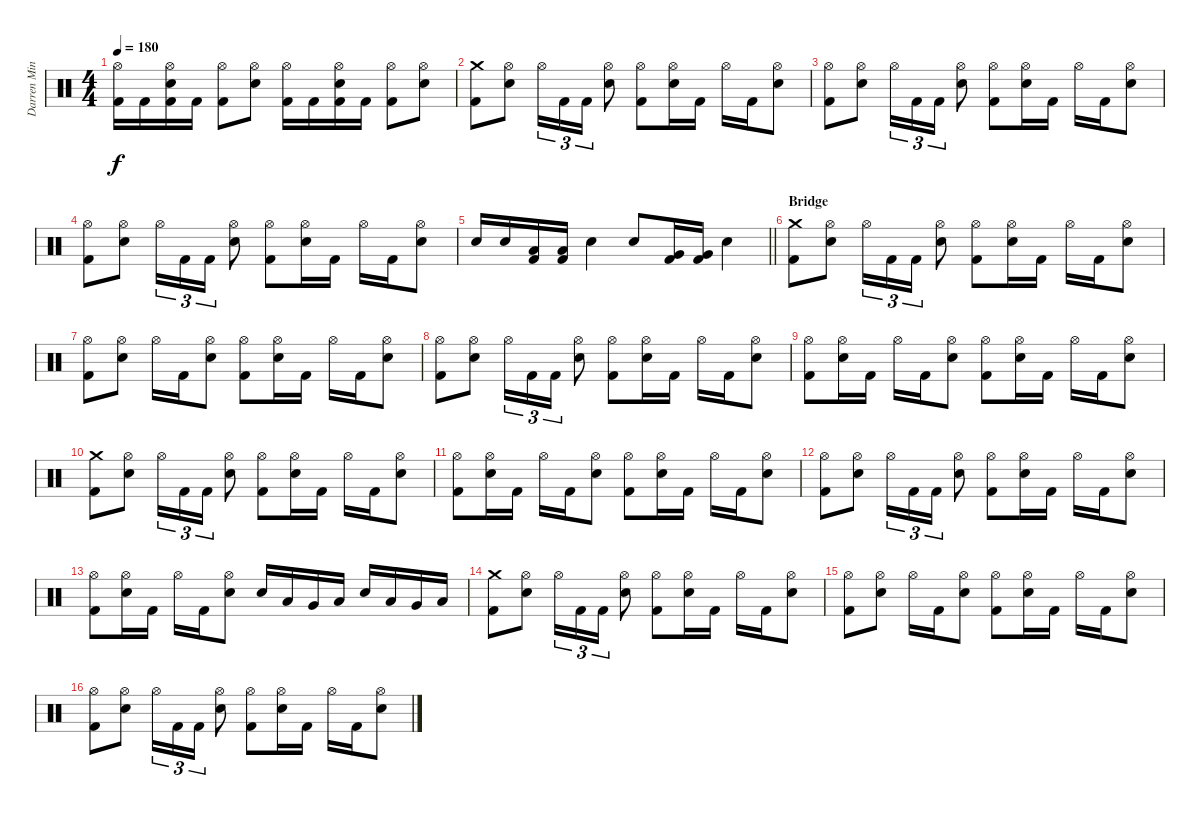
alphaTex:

\track ("Darren Minter" "Darren Min") {instrument percussion}
\staff {score}
\articulation defaults
\ts (4 4)
\tempo 180
\clef neutral
\ks c
("Hi-Hat (open)" "Kick (hit) 2").16{dy f} "Kick (hit) 2".16 ("Hi-Hat (open)" "Electric Snare (hit)" "Kick (hit) 2").16 "Kick (hit) 2".16 ("Hi-Hat (open)" "Kick (hit) 2").8 ("Hi-Hat (open)" "Electric Snare (hit)").8 ("Hi-Hat (open)" "Kick (hit) 2").16 "Kick (hit) 2".16 ("Hi-Hat (open)" "Electric Snare (hit)" "Kick (hit) 2").16 "Kick (hit) 2".16 ("Hi-Hat (open)" "Kick (hit) 2").8 ("Hi-Hat (open)" "Electric Snare (hit)").8 |
("Crash medium (hit)" "Kick (hit) 2").8 ("Hi-Hat (open)" "Electric Snare (hit)").8 "Hi-Hat (open)".16{tu (3 2)} "Kick (hit) 2".16{tu (3 2)} "Kick (hit) 2".16{tu (3 2)} ("Hi-Hat (open)" "Electric Snare (hit)").8 ("Hi-Hat (open)" "Kick (hit) 2").8 ("Hi-Hat (open)" "Electric Snare (hit)").16 "Kick (hit) 2".16 "Hi-Hat (open)".16 "Kick (hit) 2".16 ("Hi-Hat (open)" "Electric Snare (hit)").8 |
("Hi-Hat (open)" "Kick (hit) 2").8 ("Hi-Hat (open)" "Electric Snare (hit)").8 "Hi-Hat (open)".16{tu (3 2)} "Kick (hit) 2".16{tu (3 2)} "Kick (hit) 2".16{tu (3 2)} ("Hi-Hat (open)" "Electric Snare (hit)").8 ("Hi-Hat (open)" "Kick (hit) 2").8 ("Hi-Hat (open)" "Electric Snare (hit)").16 "Kick (hit) 2".16 "Hi-Hat (open)".16 "Kick (hit) 2".16 ("Hi-Hat (open)" "Electric Snare (hit)").8 |
("Hi-Hat (open)" "Kick (hit) 2").8 ("Hi-Hat (open)" "Electric Snare (hit)").8 "Hi-Hat (open)".16{tu (3 2)} "Kick (hit) 2".16{tu (3 2)} "Kick (hit) 2".16{tu (3 2)} ("Hi-Hat (open)" "Electric Snare (hit)").8 ("Hi-Hat (open)" "Kick (hit) 2").8 ("Hi-Hat (open)" "Electric Snare (hit)").16 "Kick (hit) 2".16 "Hi-Hat (open)".16 "Kick (hit) 2".16 ("Hi-Hat (open)" "Electric Snare (hit)").8 |
\barLineRight lightlight "Electric Snare (hit)".16 "Electric Snare (hit)".16
("Low Tom (hit)" "Kick (hit) 2").16 ("Low Tom (hit)" "Kick (hit) 2").16 "Electric Snare (hit)".4 "Electric Snare (hit)".8 ("Very Low Tom (hit)" "Kick (hit) 2").16 ("Very Low Tom (hit)" "Kick (hit) 2").16 "Electric Snare (hit)".4 |
\section ("" "Bridge")
("Crash medium (hit)" "Kick (hit) 2").8 ("Hi-Hat (open)" "Electric Snare (hit)").8 "Hi-Hat (open)".16{tu (3 2)} "Kick (hit) 2".16{tu (3 2)} "Kick (hit) 2".16{tu (3 2)} ("Hi-Hat (open)" "Electric Snare (hit)").8 ("Hi-Hat (open)" "Kick (hit) 2").8 ("Hi-Hat (open)" "Electric Snare (hit)").16 "Kick (hit) 2".16 "Hi-Hat (open)".16 "Kick (hit) 2".16 ("Hi-Hat (open)" "Electric Snare (hit)").8 |
("Hi-Hat (open)" "Kick (hit) 2").8 ("Hi-Hat (open)" "Electric Snare (hit)").8 "Hi-Hat (open)".16 "Kick (hit) 2".16 ("Hi-Hat (open)" "Electric Snare (hit)").8 ("Hi-Hat (open)" "Kick (hit) 2").8 ("Hi-Hat (open)" "Electric Snare (hit)").16 "Kick (hit) 2".16 "Hi-Hat (open)".16 "Kick (hit) 2".16 ("Hi-Hat (open)" "Electric Snare (hit)").8 |
("Hi-Hat (open)" "Kick (hit) 2").8 ("Hi-Hat (open)" "Electric Snare (hit)").8 "Hi-Hat (open)".16{tu (3 2)} "Kick (hit) 2".16{tu (3 2)} "Kick (hit) 2".16{tu (3 2)} ("Hi-Hat (open)" "Electric Snare (hit)").8 ("Hi-Hat (open)" "Kick (hit) 2").8 ("Hi-Hat (open)" "Electric Snare (hit)").16 "Kick (hit) 2".16 "Hi-Hat (open)".16 "Kick (hit) 2".16 ("Hi-Hat (open)" "Electric Snare (hit)").8 |
("Hi-Hat (open)" "Kick (hit) 2").8 ("Hi-Hat (open)" "Electric Snare (hit)").16 "Kick (hit) 2".16 "Hi-Hat (open)".16 "Kick (hit) 2".16 ("Hi-Hat (open)" "Electric Snare (hit)").8 ("Hi-Hat (open)" "Kick (hit) 2").8 ("Hi-Hat (open)" "Electric Snare (hit)").16 "Kick (hit) 2".16 "Hi-Hat (open)".16 "Kick (hit) 2".16 ("Hi-Hat (open)" "Electric Snare (hit)").8 |
("Crash medium (hit)" "Kick (hit) 2").8 ("Hi-Hat (open)" "Electric Snare (hit)").8 "Hi-Hat (open)".16{tu (3 2)} "Kick (hit) 2".16{tu (3 2)} "Kick (hit) 2".16{tu (3 2)} ("Hi-Hat (open)" "Electric Snare (hit)").8 ("Hi-Hat (open)" "Kick (hit) 2").8 ("Hi-Hat (open)" "Electric Snare (hit)").16 "Kick (hit) 2".16 "Hi-Hat (open)".16 "Kick (hit) 2".16 ("Hi-Hat (open)" "Electric Snare (hit)").8 |
("Hi-Hat (open)" "Kick (hit) 2").8 ("Hi-Hat (open)" "Electric Snare (hit)").16 "Kick (hit) 2".16 "Hi-Hat (open)".16 "Kick (hit) 2".16 ("Hi-Hat (open)" "Electric Snare (hit)").8 ("Hi-Hat (open)" "Kick (hit) 2").8 ("Hi-Hat (open)" "Electric Snare (hit)").16 "Kick (hit) 2".16 "Hi-Hat (open)".16 "Kick (hit) 2".16 ("Hi-Hat (open)" "Electric Snare (hit)").8 |
("Hi-Hat (open)" "Kick (hit) 2").8 ("Hi-Hat (open)" "Electric Snare (hit)").8 "Hi-Hat (open)".16{tu (3 2)} "Kick (hit) 2".16{tu (3 2)} "Kick (hit) 2".16{tu (3 2)} ("Hi-Hat (open)" "Electric Snare (hit)").8 ("Hi-Hat (open)" "Kick (hit) 2").8 ("Hi-Hat (open)" "Electric Snare (hit)").16 "Kick (hit) 2".16 "Hi-Hat (open)".16 "Kick (hit) 2".16 ("Hi-Hat (open)" "Electric Snare (hit)").8 |
("Hi-Hat (open)" "Kick (hit) 2").8 ("Hi-Hat (open)" "Electric Snare (hit)").16 "Kick (hit) 2".16 "Hi-Hat (open)".16 "Kick (hit) 2".16 ("Hi-Hat (open)" "Electric Snare (hit)").8 "Electric Snare (hit)".16 "Low Tom (hit)".16 "Very Low Tom (hit)".16 "Low Floor Tom (hit)".16 "Electric Snare (hit)".16 "Low Tom (hit)".16 "Very Low Tom (hit)".16 "Low Floor Tom (hit)".16 |
("Crash medium (hit)" "Kick (hit) 2").8 ("Hi-Hat (open)" "Electric Snare (hit)").8 "Hi-Hat (open)".16{tu (3 2)} "Kick (hit) 2".16{tu (3 2)} "Kick (hit) 2".16{tu (3 2)} ("Hi-Hat (open)" "Electric Snare (hit)").8 ("Hi-Hat (open)" "Kick (hit) 2").8 ("Hi-Hat (open)" "Electric Snare (hit)").16 "Kick (hit) 2".16 "Hi-Hat (open)".16 "Kick (hit) 2".16 ("Hi-Hat (open)" "Electric Snare (hit)").8 |
("Hi-Hat (open)" "Kick (hit) 2").8 ("Hi-Hat (open)" "Electric Snare (hit)").8 "Hi-Hat (open)".16 "Kick (hit) 2".16 ("Hi-Hat (open)" "Electric Snare (hit)").8 ("Hi-Hat (open)" "Kick (hit) 2").8 ("Hi-Hat (open)" "Electric Snare (hit)").16 "Kick (hit) 2".16 "Hi-Hat (open)".16 "Kick (hit) 2".16 ("Hi-Hat (open)" "Electric Snare (hit)").8 |
("Hi-Hat (open)" "Kick (hit) 2").8 ("Hi-Hat (open)" "Electric Snare (hit)").8 "Hi-Hat (open)".16{tu (3 2)} "Kick (hit) 2".16{tu (3 2)} "Kick (hit) 2".16{tu (3 2)} ("Hi-Hat (open)" "Electric Snare (hit)").8 ("Hi-Hat (open)" "Kick (hit) 2").8 ("Hi-Hat (open)" "Electric Snare (hit)").16 "Kick (hit) 2".16 "Hi-Hat (open)".16 "Kick (hit) 2".16 ("Hi-Hat (open)" "Electric Snare (hit)").8
